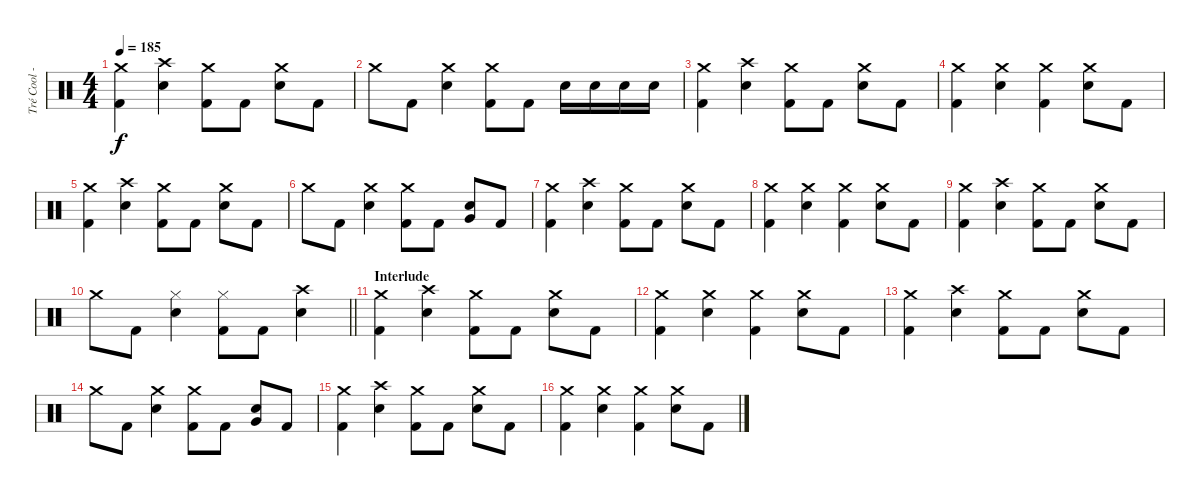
\track ("Tré Cool - Drums" "Tré Cool -") {instrument percussion}
\staff {score}
\articulation defaults
\ts (4 4)
\tempo 185
\clef neutral
\ks c
("Crash medium (hit)" "Kick (hit) 2").4{dy f} ("Crash high (hit)" "Electric Snare (hit)").4 ("Crash medium (hit)" "Kick (hit) 2").8 "Kick (hit) 2".8 ("Crash medium (hit)" "Electric Snare (hit)").8 "Kick (hit) 2".8 |
"Crash medium (hit)".8 "Kick (hit) 2".8 ("Crash medium (hit)" "Electric Snare (hit)").4 ("Crash medium (hit)" "Kick (hit) 2").8 "Kick (hit) 2".8 "Electric Snare (hit)".16 "Electric Snare (hit)".16 "Electric Snare (hit)".16 "Electric Snare (hit)".16 |
("Crash medium (hit)" "Kick (hit) 2").4 ("Crash high (hit)" "Electric Snare (hit)").4 ("Crash medium (hit)" "Kick (hit) 2").8 "Kick (hit) 2".8 ("Crash medium (hit)" "Electric Snare (hit)").8 "Kick (hit) 2".8 |
("Crash medium (hit)" "Kick (hit) 2").4 ("Crash medium (hit)" "Electric Snare (hit)").4 ("Crash medium (hit)" "Kick (hit) 2").4 ("Crash medium (hit)" "Electric Snare (hit)").8 "Kick (hit) 2".8 |
("Crash medium (hit)" "Kick (hit) 2").4 ("Crash high (hit)" "Electric Snare (hit)").4 ("Crash medium (hit)" "Kick (hit) 2").8 "Kick (hit) 2".8 ("Crash medium (hit)" "Electric Snare (hit)").8 "Kick (hit) 2".8 |
"Crash medium (hit)".8 "Kick (hit) 2".8 ("Crash medium (hit)" "Electric Snare (hit)").4 ("Crash medium (hit)" "Kick (hit) 2").8 "Kick (hit) 2".8 ("Very Low Tom (hit)" "Electric Snare (hit)").8 "Kick (hit) 2".8 |
("Crash medium (hit)" "Kick (hit) 2").4 ("Crash high (hit)" "Electric Snare (hit)").4 ("Crash medium (hit)" "Kick (hit) 2").8 "Kick (hit) 2".8 ("Crash medium (hit)" "Electric Snare (hit)").8 "Kick (hit) 2".8 |
("Crash medium (hit)" "Kick (hit) 2").4 ("Crash medium (hit)" "Electric Snare (hit)").4 ("Crash medium (hit)" "Kick (hit) 2").4 ("Crash medium (hit)" "Electric Snare (hit)").8 "Kick (hit) 2".8 |
("Crash medium (hit)" "Kick (hit) 2").4 ("Crash high (hit)" "Electric Snare (hit)").4 ("Crash medium (hit)" "Kick (hit) 2").8 "Kick (hit) 2".8 ("Crash medium (hit)" "Electric Snare (hit)").8 "Kick (hit) 2".8 |
\barLineRight lightlight "Crash medium (hit)".8 "Kick (hit) 2".8
("Hi-Hat (closed)" "Electric Snare (hit)").4 ("Hi-Hat (closed)" "Kick (hit) 2").8 "Kick (hit) 2".8 ("Crash high (hit)" "Electric Snare (hit)").4 |
\section ("" "Interlude")
("Crash medium (hit)" "Kick (hit) 2").4 ("Crash high (hit)" "Electric Snare (hit)").4 ("Crash medium (hit)" "Kick (hit) 2").8 "Kick (hit) 2".8 ("Crash medium (hit)" "Electric Snare (hit)").8 "Kick (hit) 2".8 |
("Crash medium (hit)" "Kick (hit) 2").4 ("Crash medium (hit)" "Electric Snare (hit)").4 ("Crash medium (hit)" "Kick (hit) 2").4 ("Crash medium (hit)" "Electric Snare (hit)").8 "Kick (hit) 2".8 |
("Crash medium (hit)" "Kick (hit) 2").4 ("Crash high (hit)" "Electric Snare (hit)").4 ("Crash medium (hit)" "Kick (hit) 2").8 "Kick (hit) 2".8 ("Crash medium (hit)" "Electric Snare (hit)").8 "Kick (hit) 2".8 |
"Crash medium (hit)".8 "Kick (hit) 2".8 ("Crash medium (hit)" "Electric Snare (hit)").4 ("Crash medium (hit)" "Kick (hit) 2").8 "Kick (hit) 2".8 ("Very Low Tom (hit)" "Electric Snare (hit)").8 "Kick (hit) 2".8 |
("Crash medium (hit)" "Kick (hit) 2").4 ("Crash high (hit)" "Electric Snare (hit)").4 ("Crash medium (hit)" "Kick (hit) 2").8 "Kick (hit) 2".8 ("Crash medium (hit)" "Electric Snare (hit)").8 "Kick (hit) 2".8 |
("Crash medium (hit)" "Kick (hit) 2").4 ("Crash medium (hit)" "Electric Snare (hit)").4 ("Crash medium (hit)" "Kick (hit) 2").4 ("Crash medium (hit)" "Electric Snare (hit)").8 "Kick (hit) 2".8
